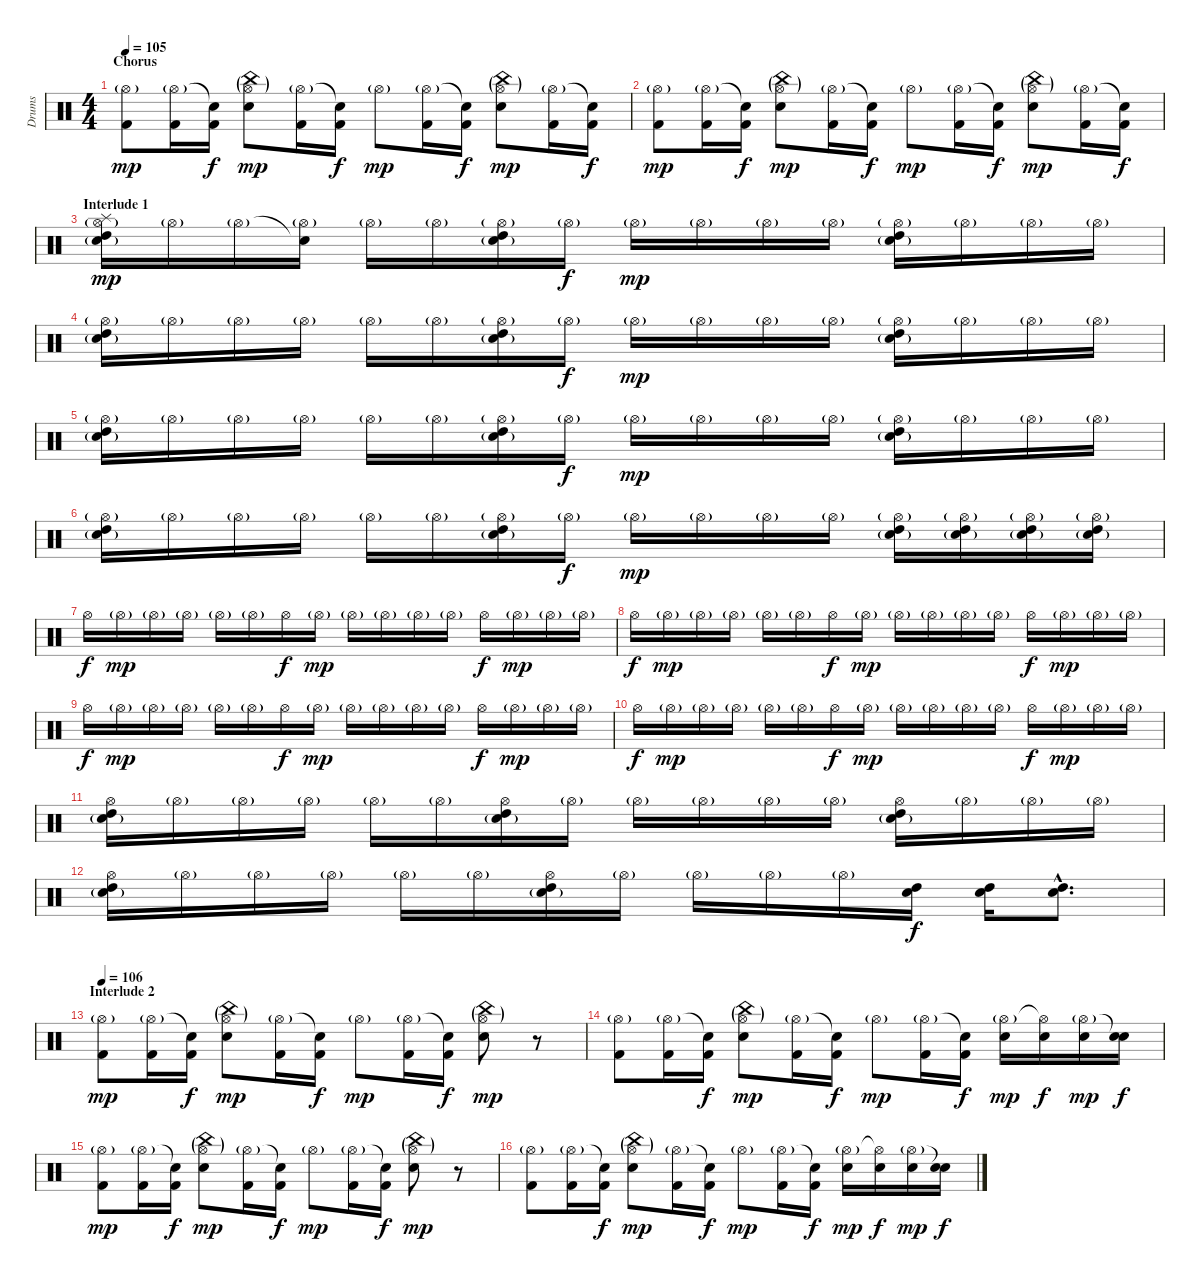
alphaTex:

\track ("Drums" "Drums") {instrument percussion}
\staff {score}
\articulation defaults
\ts (4 4)
\section ("" "Chorus")
\tempo 105
\clef neutral
\ks c
("Hi-Hat (open)"{g} "Kick (hit) 2").8{dy mp} ("Hi-Hat (open)"{g} "Kick (hit) 2").16 ("Snare (hit)"{t} "Kick (hit) 2").16{dy f} ("China (hit)"{g} "Hi-Hat (open)"{g} "Electric Snare (hit)").8{dy mp} ("Hi-Hat (open)"{g} "Kick (hit) 2").16 ("Snare (hit)"{t} "Kick (hit) 2").16{dy f} "Hi-Hat (open)"{g}.8{dy mp} ("Hi-Hat (open)"{g} "Kick (hit) 2").16 ("Snare (hit)"{t} "Kick (hit) 2").16{dy f} ("China (hit)"{g} "Hi-Hat (open)"{g} "Electric Snare (hit)").8{dy mp} ("Hi-Hat (open)"{g} "Kick (hit) 2").16 ("Snare (hit)"{t} "Kick (hit) 2").16{dy f} |
("Hi-Hat (open)"{g} "Kick (hit) 2").8{dy mp} ("Hi-Hat (open)"{g} "Kick (hit) 2").16 ("Snare (hit)"{t} "Kick (hit) 2").16{dy f} ("China (hit)"{g} "Hi-Hat (open)"{g} "Electric Snare (hit)").8{dy mp} ("Hi-Hat (open)"{g} "Kick (hit) 2").16 ("Snare (hit)"{t} "Kick (hit) 2").16{dy f} "Hi-Hat (open)"{g}.8{dy mp} ("Hi-Hat (open)"{g} "Kick (hit) 2").16 ("Snare (hit)"{t} "Kick (hit) 2").16{dy f} ("China (hit)"{g} "Hi-Hat (open)"{g} "Electric Snare (hit)").8{dy mp} ("Hi-Hat (open)"{g} "Kick (hit) 2").16 ("Snare (hit)"{t} "Kick (hit) 2").16{dy f} |
\section ("" "Interlude 1")
("Splash (hit)" "Hi-Hat (open)"{g} "High Tom (hit)" "Electric Snare (hit)"{g}).16{dy mp} "Hi-Hat (open)"{g}.16 "Hi-Hat (open)"{g}.16 ("Snare (hit)"{t} "Hi-Hat (open)"{g}).16 "Hi-Hat (open)"{g}.16 "Hi-Hat (open)"{g}.16 ("Hi-Hat (open)"{g} "High Tom (hit)" "Electric Snare (hit)"{g}).16 "Hi-Hat (open)"{g}.16{dy f} "Hi-Hat (open)"{g}.16{dy mp} "Hi-Hat (open)"{g}.16 "Hi-Hat (open)"{g}.16 "Hi-Hat (open)"{g}.16 ("Hi-Hat (open)"{g} "High Tom (hit)" "Electric Snare (hit)"{g}).16 "Hi-Hat (open)"{g}.16 "Hi-Hat (open)"{g}.16 "Hi-Hat (open)"{g}.16 |
("Hi-Hat (open)"{g} "High Tom (hit)" "Electric Snare (hit)"{g}).16 "Hi-Hat (open)"{g}.16 "Hi-Hat (open)"{g}.16 "Hi-Hat (open)"{g}.16 "Hi-Hat (open)"{g}.16 "Hi-Hat (open)"{g}.16 ("Hi-Hat (open)"{g} "High Tom (hit)" "Electric Snare (hit)"{g}).16 "Hi-Hat (open)"{g}.16{dy f} "Hi-Hat (open)"{g}.16{dy mp} "Hi-Hat (open)"{g}.16 "Hi-Hat (open)"{g}.16 "Hi-Hat (open)"{g}.16 ("Hi-Hat (open)"{g} "High Tom (hit)" "Electric Snare (hit)"{g}).16 "Hi-Hat (open)"{g}.16 "Hi-Hat (open)"{g}.16 "Hi-Hat (open)"{g}.16 |
("Hi-Hat (open)"{g} "High Tom (hit)" "Electric Snare (hit)"{g}).16 "Hi-Hat (open)"{g}.16 "Hi-Hat (open)"{g}.16 "Hi-Hat (open)"{g}.16 "Hi-Hat (open)"{g}.16 "Hi-Hat (open)"{g}.16 ("Hi-Hat (open)"{g} "High Tom (hit)" "Electric Snare (hit)"{g}).16 "Hi-Hat (open)"{g}.16{dy f} "Hi-Hat (open)"{g}.16{dy mp} "Hi-Hat (open)"{g}.16 "Hi-Hat (open)"{g}.16 "Hi-Hat (open)"{g}.16 ("Hi-Hat (open)"{g} "High Tom (hit)" "Electric Snare (hit)"{g}).16 "Hi-Hat (open)"{g}.16 "Hi-Hat (open)"{g}.16 "Hi-Hat (open)"{g}.16 |
("Hi-Hat (open)"{g} "High Tom (hit)" "Electric Snare (hit)"{g}).16 "Hi-Hat (open)"{g}.16 "Hi-Hat (open)"{g}.16 "Hi-Hat (open)"{g}.16 "Hi-Hat (open)"{g}.16 "Hi-Hat (open)"{g}.16 ("Hi-Hat (open)"{g} "High Tom (hit)" "Electric Snare (hit)"{g}).16 "Hi-Hat (open)"{g}.16{dy f} "Hi-Hat (open)"{g}.16{dy mp} "Hi-Hat (open)"{g}.16 "Hi-Hat (open)"{g}.16 "Hi-Hat (open)"{g}.16 ("Hi-Hat (open)"{g} "High Tom (hit)" "Electric Snare (hit)"{g}).16 ("Hi-Hat (open)"{g} "High Tom (hit)" "Electric Snare (hit)"{g}).16 ("Hi-Hat (open)"{g} "High Tom (hit)" "Electric Snare (hit)"{g}).16 ("Hi-Hat (open)"{g} "High Tom (hit)" "Electric Snare (hit)"{g}).16 |
"Hi-Hat (open)".16{dy f} "Hi-Hat (open)"{g}.16{dy mp} "Hi-Hat (open)"{g}.16 "Hi-Hat (open)"{g}.16 "Hi-Hat (open)"{g}.16 "Hi-Hat (open)"{g}.16 "Hi-Hat (open)".16{dy f} "Hi-Hat (open)"{g}.16{dy mp} "Hi-Hat (open)"{g}.16 "Hi-Hat (open)"{g}.16 "Hi-Hat (open)"{g}.16 "Hi-Hat (open)"{g}.16 "Hi-Hat (open)".16{dy f} "Hi-Hat (open)"{g}.16{dy mp} "Hi-Hat (open)"{g}.16 "Hi-Hat (open)"{g}.16 |
"Hi-Hat (open)".16{dy f} "Hi-Hat (open)"{g}.16{dy mp} "Hi-Hat (open)"{g}.16 "Hi-Hat (open)"{g}.16 "Hi-Hat (open)"{g}.16 "Hi-Hat (open)"{g}.16 "Hi-Hat (open)".16{dy f} "Hi-Hat (open)"{g}.16{dy mp} "Hi-Hat (open)"{g}.16 "Hi-Hat (open)"{g}.16 "Hi-Hat (open)"{g}.16 "Hi-Hat (open)"{g}.16 "Hi-Hat (open)".16{dy f} "Hi-Hat (open)"{g}.16{dy mp} "Hi-Hat (open)"{g}.16 "Hi-Hat (open)"{g}.16 |
"Hi-Hat (open)".16{dy f} "Hi-Hat (open)"{g}.16{dy mp} "Hi-Hat (open)"{g}.16 "Hi-Hat (open)"{g}.16 "Hi-Hat (open)"{g}.16 "Hi-Hat (open)"{g}.16 "Hi-Hat (open)".16{dy f} "Hi-Hat (open)"{g}.16{dy mp} "Hi-Hat (open)"{g}.16 "Hi-Hat (open)"{g}.16 "Hi-Hat (open)"{g}.16 "Hi-Hat (open)"{g}.16 "Hi-Hat (open)".16{dy f} "Hi-Hat (open)"{g}.16{dy mp} "Hi-Hat (open)"{g}.16 "Hi-Hat (open)"{g}.16 |
"Hi-Hat (open)".16{dy f} "Hi-Hat (open)"{g}.16{dy mp} "Hi-Hat (open)"{g}.16 "Hi-Hat (open)"{g}.16 "Hi-Hat (open)"{g}.16 "Hi-Hat (open)"{g}.16 "Hi-Hat (open)".16{dy f} "Hi-Hat (open)"{g}.16{dy mp} "Hi-Hat (open)"{g}.16 "Hi-Hat (open)"{g}.16 "Hi-Hat (open)"{g}.16 "Hi-Hat (open)"{g}.16 "Hi-Hat (open)".16{dy f} "Hi-Hat (open)"{g}.16{dy mp} "Hi-Hat (open)"{g}.16 "Hi-Hat (open)"{g}.16 |
("Hi-Hat (open)" "High Tom (hit)" "Electric Snare (hit)"{g}).16 "Hi-Hat (open)"{g}.16 "Hi-Hat (open)"{g}.16 "Hi-Hat (open)"{g}.16 "Hi-Hat (open)"{g}.16 "Hi-Hat (open)"{g}.16 ("Hi-Hat (open)" "High Tom (hit)" "Electric Snare (hit)"{g}).16 "Hi-Hat (open)"{g}.16 "Hi-Hat (open)"{g}.16 "Hi-Hat (open)"{g}.16 "Hi-Hat (open)"{g}.16 "Hi-Hat (open)"{g}.16 ("Hi-Hat (open)" "High Tom (hit)" "Electric Snare (hit)"{g}).16 "Hi-Hat (open)"{g}.16 "Hi-Hat (open)"{g}.16 "Hi-Hat (open)"{g}.16 |
("Hi-Hat (open)" "High Tom (hit)" "Electric Snare (hit)"{g}).16 "Hi-Hat (open)"{g}.16 "Hi-Hat (open)"{g}.16 "Hi-Hat (open)"{g}.16 "Hi-Hat (open)"{g}.16 "Hi-Hat (open)"{g}.16 ("Hi-Hat (open)" "High Tom (hit)" "Electric Snare (hit)"{g}).16 "Hi-Hat (open)"{g}.16 "Hi-Hat (open)"{g}.16 "Hi-Hat (open)"{g}.16 "Hi-Hat (open)"{g}.16 ("High Tom (hit)" "Electric Snare (hit)").16{dy f} ("High Tom (hit)" "Electric Snare (hit)").16 ("High Tom (hit)"{hac} "Electric Snare (hit)"{hac}).8{d} |
\section ("" "Interlude 2")
\tempo 106
("Hi-Hat (open)"{g} "Kick (hit) 2").8{dy mp} ("Hi-Hat (open)"{g} "Kick (hit) 2").16 ("Snare (hit)"{t} "Kick (hit) 2").16{dy f} ("China (hit)"{g} "Hi-Hat (open)"{g} "Electric Snare (hit)").8{dy mp} ("Hi-Hat (open)"{g} "Kick (hit) 2").16 ("Snare (hit)"{t} "Kick (hit) 2").16{dy f} "Hi-Hat (open)"{g}.8{dy mp} ("Hi-Hat (open)"{g} "Kick (hit) 2").16 ("Snare (hit)"{t} "Kick (hit) 2").16{dy f} ("China (hit)"{g} "Hi-Hat (open)"{g} "Electric Snare (hit)").8{dy mp} r.8 |
("Hi-Hat (open)"{g} "Kick (hit) 2").8 ("Hi-Hat (open)"{g} "Kick (hit) 2").16 ("Snare (hit)"{t} "Kick (hit) 2").16{dy f} ("China (hit)"{g} "Hi-Hat (open)"{g} "Electric Snare (hit)").8{dy mp} ("Hi-Hat (open)"{g} "Kick (hit) 2").16 ("Snare (hit)"{t} "Kick (hit) 2").16{dy f} "Hi-Hat (open)"{g}.8{dy mp} ("Hi-Hat (open)"{g} "Kick (hit) 2").16 ("Snare (hit)"{t} "Kick (hit) 2").16{dy f} ("Hi-Hat (open)"{g} "Electric Snare (hit)").16{dy mp} ("Hi-Hat (open)"{t} "Electric Snare (hit)").16{dy f} ("Hi-Hat (open)"{g} "Electric Snare (hit)").16{dy mp} ("Snare (hit)"{t} "Electric Snare (hit)").16{dy f} |
("Hi-Hat (open)"{g} "Kick (hit) 2").8{dy mp} ("Hi-Hat (open)"{g} "Kick (hit) 2").16 ("Snare (hit)"{t} "Kick (hit) 2").16{dy f} ("China (hit)"{g} "Hi-Hat (open)"{g} "Electric Snare (hit)").8{dy mp} ("Hi-Hat (open)"{g} "Kick (hit) 2").16 ("Snare (hit)"{t} "Kick (hit) 2").16{dy f} "Hi-Hat (open)"{g}.8{dy mp} ("Hi-Hat (open)"{g} "Kick (hit) 2").16 ("Snare (hit)"{t} "Kick (hit) 2").16{dy f} ("China (hit)"{g} "Hi-Hat (open)"{g} "Electric Snare (hit)").8{dy mp} r.8 |
("Hi-Hat (open)"{g} "Kick (hit) 2").8 ("Hi-Hat (open)"{g} "Kick (hit) 2").16 ("Snare (hit)"{t} "Kick (hit) 2").16{dy f} ("China (hit)"{g} "Hi-Hat (open)"{g} "Electric Snare (hit)").8{dy mp} ("Hi-Hat (open)"{g} "Kick (hit) 2").16 ("Snare (hit)"{t} "Kick (hit) 2").16{dy f} "Hi-Hat (open)"{g}.8{dy mp} ("Hi-Hat (open)"{g} "Kick (hit) 2").16 ("Snare (hit)"{t} "Kick (hit) 2").16{dy f} ("Hi-Hat (open)"{g} "Electric Snare (hit)").16{dy mp} ("Hi-Hat (open)"{t} "Electric Snare (hit)").16{dy f} ("Hi-Hat (open)"{g} "Electric Snare (hit)").16{dy mp} ("Snare (hit)"{t} "Electric Snare (hit)").16{dy f}
